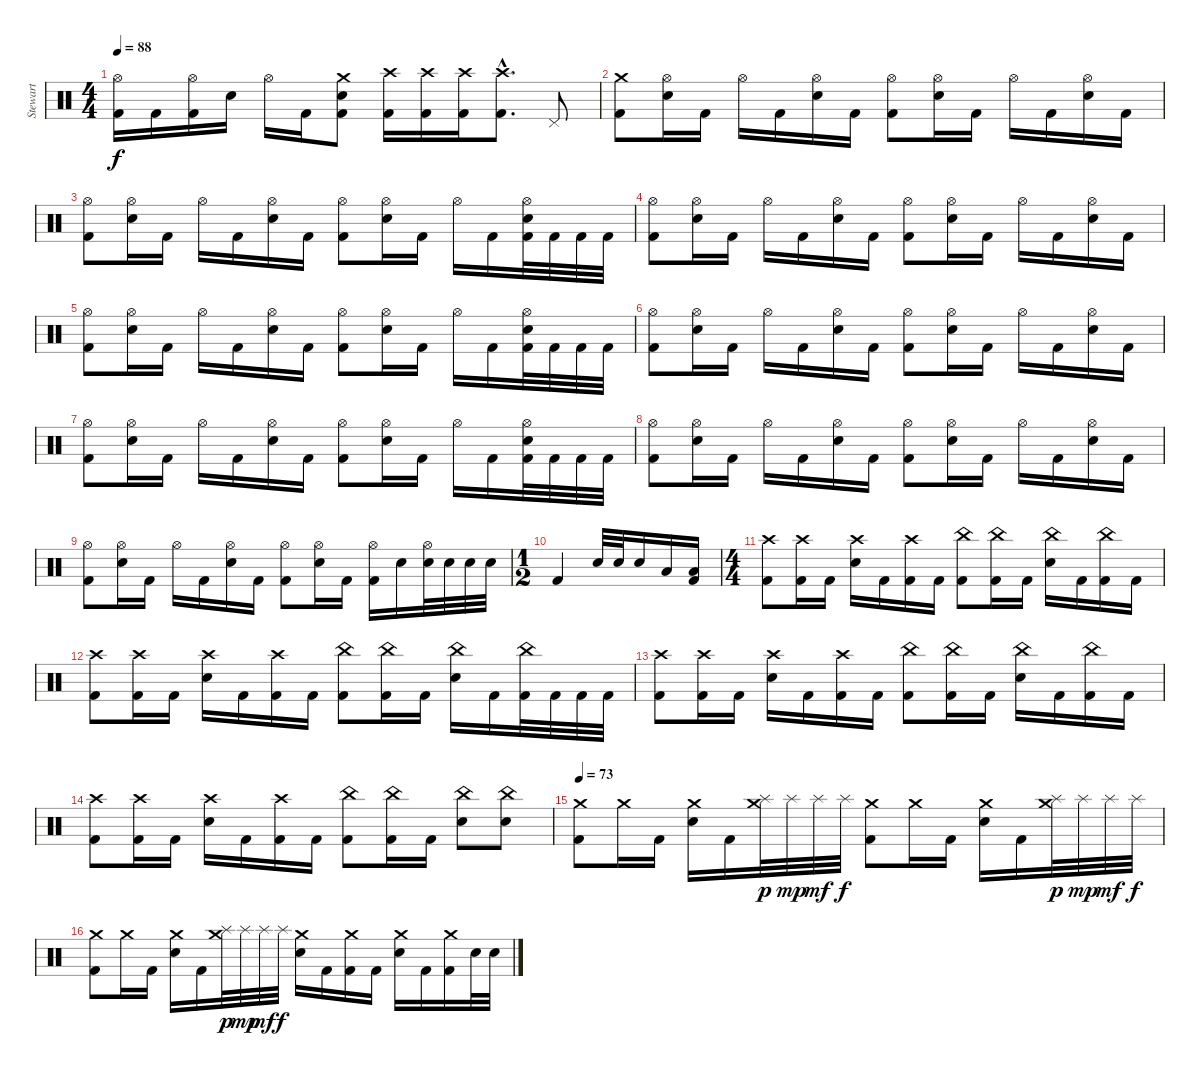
\track ("Stewart" "Stewart") {instrument percussion}
\staff {score}
\articulation defaults
\ts (4 4)
\tempo 88
\clef neutral
\ks c
("Hi-Hat (open)" "Kick (hit) 2").16{dy f} "Kick (hit) 2".16 ("Hi-Hat (open)" "Kick (hit) 2").16 "Electric Snare (hit)".16 "Hi-Hat (open)".16 "Kick (hit) 2".16 ("Crash medium (hit)" "Electric Snare (hit)" "Kick (hit) 2").8 ("Crash high (hit)" "Kick (hit) 2").16 ("Crash high (hit)" "Kick (hit) 2").16 ("Crash high (hit)" "Kick (hit) 2").16 ("Crash high (hit)"{hac} "Kick (hit) 2"{hac}).8{d} "Pedal Hi-Hat (hit)".8 |
("Crash medium (hit)" "Kick (hit) 2").8 ("Hi-Hat (open)" "Electric Snare (hit)").16 "Kick (hit) 2".16 "Hi-Hat (open)".16 "Kick (hit) 2".16 ("Hi-Hat (open)" "Electric Snare (hit)").16 "Kick (hit) 2".16 ("Hi-Hat (open)" "Kick (hit) 2").8 ("Hi-Hat (open)" "Electric Snare (hit)").16 "Kick (hit) 2".16 "Hi-Hat (open)".16 "Kick (hit) 2".16 ("Hi-Hat (open)" "Electric Snare (hit)").16 "Kick (hit) 2".16 |
("Hi-Hat (open)" "Kick (hit) 2").8 ("Hi-Hat (open)" "Electric Snare (hit)").16 "Kick (hit) 2".16 "Hi-Hat (open)".16 "Kick (hit) 2".16 ("Hi-Hat (open)" "Electric Snare (hit)").16 "Kick (hit) 2".16 ("Hi-Hat (open)" "Kick (hit) 2").8 ("Hi-Hat (open)" "Electric Snare (hit)").16 "Kick (hit) 2".16 "Hi-Hat (open)".16 "Kick (hit) 2".16 ("Hi-Hat (open)" "Electric Snare (hit)" "Kick (hit) 2").32 "Kick (hit) 2".32 "Kick (hit) 2".32 "Kick (hit) 2".32 |
("Hi-Hat (open)" "Kick (hit) 2").8 ("Hi-Hat (open)" "Electric Snare (hit)").16 "Kick (hit) 2".16 "Hi-Hat (open)".16 "Kick (hit) 2".16 ("Hi-Hat (open)" "Electric Snare (hit)").16 "Kick (hit) 2".16 ("Hi-Hat (open)" "Kick (hit) 2").8 ("Hi-Hat (open)" "Electric Snare (hit)").16 "Kick (hit) 2".16 "Hi-Hat (open)".16 "Kick (hit) 2".16 ("Hi-Hat (open)" "Electric Snare (hit)").16 "Kick (hit) 2".16 |
("Hi-Hat (open)" "Kick (hit) 2").8 ("Hi-Hat (open)" "Electric Snare (hit)").16 "Kick (hit) 2".16 "Hi-Hat (open)".16 "Kick (hit) 2".16 ("Hi-Hat (open)" "Electric Snare (hit)").16 "Kick (hit) 2".16 ("Hi-Hat (open)" "Kick (hit) 2").8 ("Hi-Hat (open)" "Electric Snare (hit)").16 "Kick (hit) 2".16 "Hi-Hat (open)".16 "Kick (hit) 2".16 ("Hi-Hat (open)" "Electric Snare (hit)" "Kick (hit) 2").32 "Kick (hit) 2".32 "Kick (hit) 2".32 "Kick (hit) 2".32 |
("Hi-Hat (open)" "Kick (hit) 2").8 ("Hi-Hat (open)" "Electric Snare (hit)").16 "Kick (hit) 2".16 "Hi-Hat (open)".16 "Kick (hit) 2".16 ("Hi-Hat (open)" "Electric Snare (hit)").16 "Kick (hit) 2".16 ("Hi-Hat (open)" "Kick (hit) 2").8 ("Hi-Hat (open)" "Electric Snare (hit)").16 "Kick (hit) 2".16 "Hi-Hat (open)".16 "Kick (hit) 2".16 ("Hi-Hat (open)" "Electric Snare (hit)").16 "Kick (hit) 2".16 |
("Hi-Hat (open)" "Kick (hit) 2").8 ("Hi-Hat (open)" "Electric Snare (hit)").16 "Kick (hit) 2".16 "Hi-Hat (open)".16 "Kick (hit) 2".16 ("Hi-Hat (open)" "Electric Snare (hit)").16 "Kick (hit) 2".16 ("Hi-Hat (open)" "Kick (hit) 2").8 ("Hi-Hat (open)" "Electric Snare (hit)").16 "Kick (hit) 2".16 "Hi-Hat (open)".16 "Kick (hit) 2".16 ("Hi-Hat (open)" "Electric Snare (hit)" "Kick (hit) 2").32 "Kick (hit) 2".32 "Kick (hit) 2".32 "Kick (hit) 2".32 |
("Hi-Hat (open)" "Kick (hit) 2").8 ("Hi-Hat (open)" "Electric Snare (hit)").16 "Kick (hit) 2".16 "Hi-Hat (open)".16 "Kick (hit) 2".16 ("Hi-Hat (open)" "Electric Snare (hit)").16 "Kick (hit) 2".16 ("Hi-Hat (open)" "Kick (hit) 2").8 ("Hi-Hat (open)" "Electric Snare (hit)").16 "Kick (hit) 2".16 "Hi-Hat (open)".16 "Kick (hit) 2".16 ("Hi-Hat (open)" "Electric Snare (hit)").16 "Kick (hit) 2".16 |
("Hi-Hat (open)" "Kick (hit) 2").8 ("Hi-Hat (open)" "Electric Snare (hit)").16 "Kick (hit) 2".16 "Hi-Hat (open)".16 "Kick (hit) 2".16 ("Hi-Hat (open)" "Electric Snare (hit)").16 "Kick (hit) 2".16 ("Hi-Hat (open)" "Kick (hit) 2").8 ("Hi-Hat (open)" "Electric Snare (hit)").16 "Kick (hit) 2".16 ("Hi-Hat (open)" "Kick (hit) 2").16 "Electric Snare (hit)".16 ("Hi-Hat (open)" "Electric Snare (hit)").32 "Electric Snare (hit)".32 "Electric Snare (hit)".32 "Electric Snare (hit)".32 |
\ts (1 2)
"Kick (hit) 2".4 "Electric Snare (hit)".32 "Electric Snare (hit)".32 "Electric Snare (hit)".16 "Low Tom (hit)".16 ("Low Tom (hit)" "Kick (hit) 2").16 |
\ts (4 4)
("Crash high (hit)" "Kick (hit) 2").8 ("Crash high (hit)" "Kick (hit) 2").16 "Kick (hit) 2".16 ("Crash high (hit)" "Electric Snare (hit)").16 "Kick (hit) 2".16 ("Crash high (hit)" "Kick (hit) 2").16 "Kick (hit) 2".16 ("China (hit)" "Kick (hit) 2").8 ("China (hit)" "Kick (hit) 2").16 "Kick (hit) 2".16 ("China (hit)" "Electric Snare (hit)").16 "Kick (hit) 2".16 ("China (hit)" "Kick (hit) 2").16 "Kick (hit) 2".16 |
("Crash high (hit)" "Kick (hit) 2").8 ("Crash high (hit)" "Kick (hit) 2").16 "Kick (hit) 2".16 ("Crash high (hit)" "Electric Snare (hit)").16 "Kick (hit) 2".16 ("Crash high (hit)" "Kick (hit) 2").16 "Kick (hit) 2".16 ("China (hit)" "Kick (hit) 2").8 ("China (hit)" "Kick (hit) 2").16 "Kick (hit) 2".16 ("China (hit)" "Electric Snare (hit)").16 "Kick (hit) 2".16 ("China (hit)" "Kick (hit) 2").32 "Kick (hit) 2".32 "Kick (hit) 2".32 "Kick (hit) 2".32 |
("Crash high (hit)" "Kick (hit) 2").8 ("Crash high (hit)" "Kick (hit) 2").16 "Kick (hit) 2".16 ("Crash high (hit)" "Electric Snare (hit)").16 "Kick (hit) 2".16 ("Crash high (hit)" "Kick (hit) 2").16 "Kick (hit) 2".16 ("China (hit)" "Kick (hit) 2").8 ("China (hit)" "Kick (hit) 2").16 "Kick (hit) 2".16 ("China (hit)" "Electric Snare (hit)").16 "Kick (hit) 2".16 ("China (hit)" "Kick (hit) 2").16 "Kick (hit) 2".16 |
("Crash high (hit)" "Kick (hit) 2").8 ("Crash high (hit)" "Kick (hit) 2").16 "Kick (hit) 2".16 ("Crash high (hit)" "Electric Snare (hit)").16 "Kick (hit) 2".16 ("Crash high (hit)" "Kick (hit) 2").16 "Kick (hit) 2".16 ("China (hit)" "Kick (hit) 2").8 ("China (hit)" "Kick (hit) 2").16 "Kick (hit) 2".16 ("China (hit)" "Electric Snare (hit)").8 ("China (hit)" "Electric Snare (hit)").8 |
\tempo 73
("Crash medium (hit)" "Kick (hit) 2").8 "Crash medium (hit)".16 "Kick (hit) 2".16 ("Crash medium (hit)" "Electric Snare (hit)").16 "Kick (hit) 2".16 ("Crash medium (hit)" "Splash (hit)").32{dy p} "Splash (hit)".32{dy mp} "Splash (hit)".32{dy mf} "Splash (hit)".32{dy f} ("Crash medium (hit)" "Kick (hit) 2").8 "Crash medium (hit)".16 "Kick (hit) 2".16 ("Crash medium (hit)" "Electric Snare (hit)").16 "Kick (hit) 2".16 ("Crash medium (hit)" "Splash (hit)").32{dy p} "Splash (hit)".32{dy mp} "Splash (hit)".32{dy mf} "Splash (hit)".32{dy f} |
("Crash medium (hit)" "Kick (hit) 2").8 "Crash medium (hit)".16 "Kick (hit) 2".16 ("Crash medium (hit)" "Electric Snare (hit)").16 "Kick (hit) 2".16 ("Crash medium (hit)" "Splash (hit)").32{dy p} "Splash (hit)".32{dy mp} "Splash (hit)".32{dy mf} "Splash (hit)".32{dy f} ("Crash medium (hit)" "Electric Snare (hit)").16 "Kick (hit) 2".16 ("Crash medium (hit)" "Kick (hit) 2").16 "Kick (hit) 2".16 ("Crash medium (hit)" "Electric Snare (hit)").16 "Kick (hit) 2".16 ("Crash medium (hit)" "Kick (hit) 2").16 "Electric Snare (hit)".32 "Electric Snare (hit)".32
